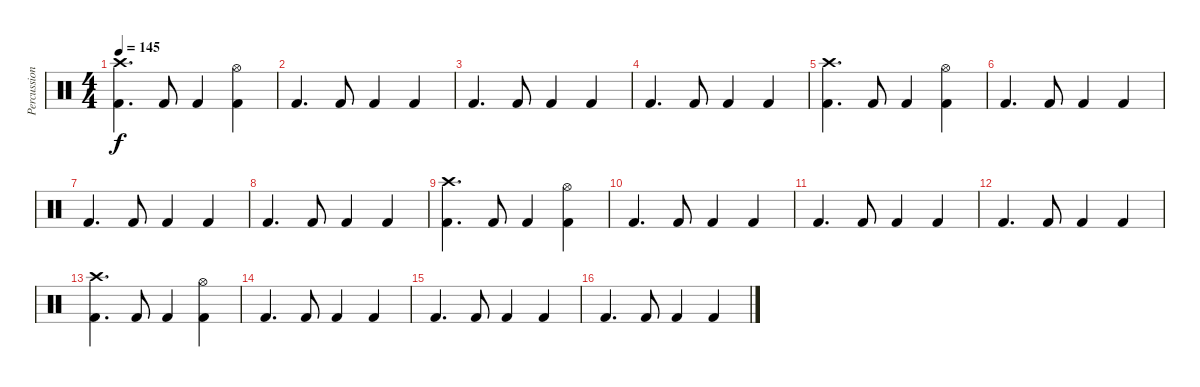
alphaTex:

\track ("Percussion" "Percussion") {instrument percussion}
\staff {score}
\articulation defaults
\ts (4 4)
\tempo 145
\clef neutral
\ks c
("Crash high (hit)" "Kick (hit) 2").4{d dy f} "Kick (hit) 2".8 "Kick (hit) 2".4 ("Hi-Hat (open)" "Kick (hit) 2").4 |
"Kick (hit) 2".4{d} "Kick (hit) 2".8 "Kick (hit) 2".4 "Kick (hit) 2".4 |
"Kick (hit) 2".4{d} "Kick (hit) 2".8 "Kick (hit) 2".4 "Kick (hit) 2".4 |
"Kick (hit) 2".4{d} "Kick (hit) 2".8 "Kick (hit) 2".4 "Kick (hit) 2".4 |
("Crash high (hit)" "Kick (hit) 2").4{d} "Kick (hit) 2".8 "Kick (hit) 2".4 ("Hi-Hat (open)" "Kick (hit) 2").4 |
"Kick (hit) 2".4{d} "Kick (hit) 2".8 "Kick (hit) 2".4 "Kick (hit) 2".4 |
"Kick (hit) 2".4{d} "Kick (hit) 2".8 "Kick (hit) 2".4 "Kick (hit) 2".4 |
"Kick (hit) 2".4{d} "Kick (hit) 2".8 "Kick (hit) 2".4 "Kick (hit) 2".4 |
("Crash high (hit)" "Kick (hit) 2").4{d} "Kick (hit) 2".8 "Kick (hit) 2".4 ("Hi-Hat (open)" "Kick (hit) 2").4 |
"Kick (hit) 2".4{d} "Kick (hit) 2".8 "Kick (hit) 2".4 "Kick (hit) 2".4 |
"Kick (hit) 2".4{d} "Kick (hit) 2".8 "Kick (hit) 2".4 "Kick (hit) 2".4 |
"Kick (hit) 2".4{d} "Kick (hit) 2".8 "Kick (hit) 2".4 "Kick (hit) 2".4 |
("Crash high (hit)" "Kick (hit) 2").4{d} "Kick (hit) 2".8 "Kick (hit) 2".4 ("Hi-Hat (open)" "Kick (hit) 2").4 |
"Kick (hit) 2".4{d} "Kick (hit) 2".8 "Kick (hit) 2".4 "Kick (hit) 2".4 |
"Kick (hit) 2".4{d} "Kick (hit) 2".8 "Kick (hit) 2".4 "Kick (hit) 2".4 |
"Kick (hit) 2".4{d} "Kick (hit) 2".8 "Kick (hit) 2".4 "Kick (hit) 2".4
